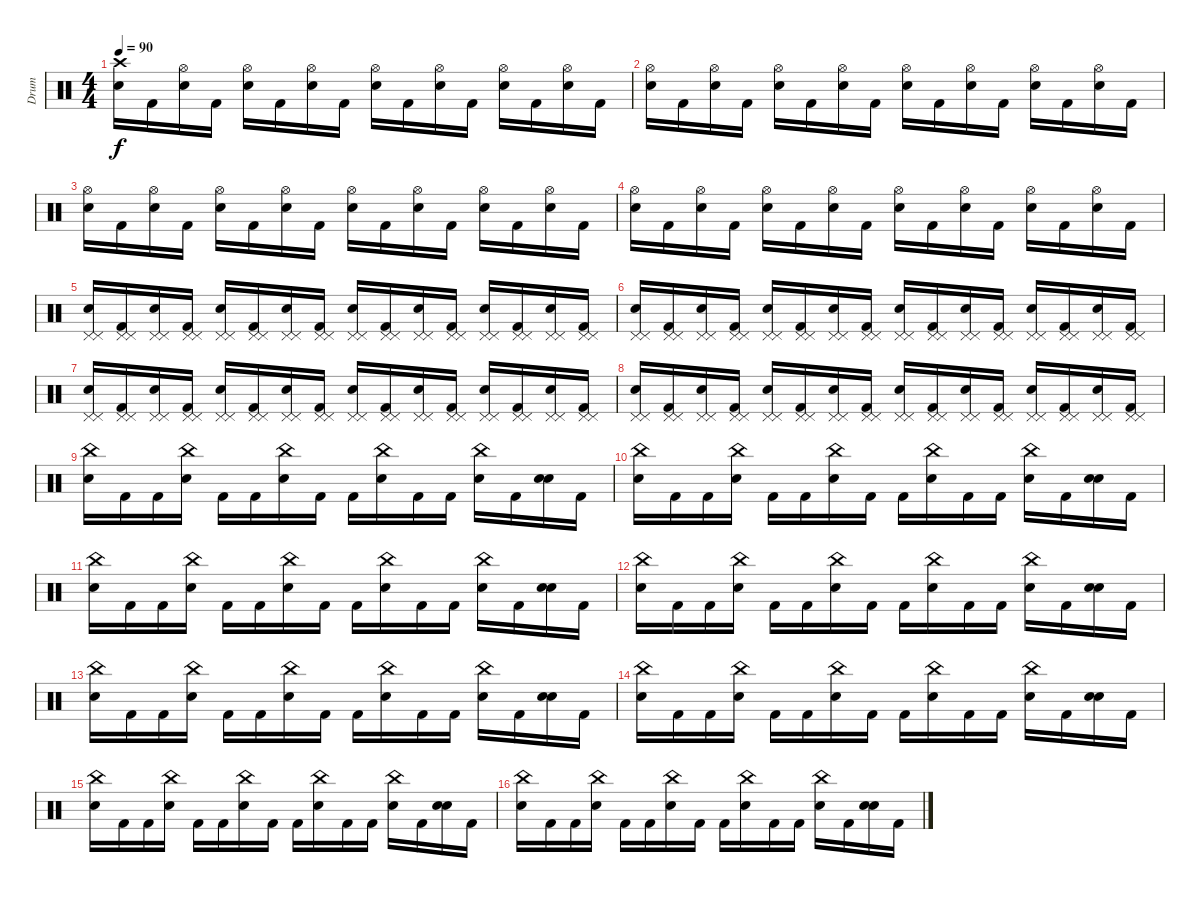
\track ("Drum" "Drum") {instrument percussion}
\staff {score}
\articulation defaults
\ts (4 4)
\tempo 90
\clef neutral
\ks c
("Crash high (hit)" "Electric Snare (hit)").16{dy f} "Kick (hit) 2".16 ("Hi-Hat (open)" "Electric Snare (hit)").16 "Kick (hit) 2".16 ("Hi-Hat (open)" "Electric Snare (hit)").16 "Kick (hit) 2".16 ("Hi-Hat (open)" "Electric Snare (hit)").16 "Kick (hit) 2".16 ("Hi-Hat (open)" "Electric Snare (hit)").16 "Kick (hit) 2".16 ("Hi-Hat (open)" "Electric Snare (hit)").16 "Kick (hit) 2".16 ("Hi-Hat (open)" "Electric Snare (hit)").16 "Kick (hit) 2".16 ("Hi-Hat (open)" "Electric Snare (hit)").16 "Kick (hit) 2".16 |
("Hi-Hat (open)" "Electric Snare (hit)").16 "Kick (hit) 2".16 ("Hi-Hat (open)" "Electric Snare (hit)").16 "Kick (hit) 2".16 ("Hi-Hat (open)" "Electric Snare (hit)").16 "Kick (hit) 2".16 ("Hi-Hat (open)" "Electric Snare (hit)").16 "Kick (hit) 2".16 ("Hi-Hat (open)" "Electric Snare (hit)").16 "Kick (hit) 2".16 ("Hi-Hat (open)" "Electric Snare (hit)").16 "Kick (hit) 2".16 ("Hi-Hat (open)" "Electric Snare (hit)").16 "Kick (hit) 2".16 ("Hi-Hat (open)" "Electric Snare (hit)").16 "Kick (hit) 2".16 |
("Hi-Hat (open)" "Electric Snare (hit)").16 "Kick (hit) 2".16 ("Hi-Hat (open)" "Electric Snare (hit)").16 "Kick (hit) 2".16 ("Hi-Hat (open)" "Electric Snare (hit)").16 "Kick (hit) 2".16 ("Hi-Hat (open)" "Electric Snare (hit)").16 "Kick (hit) 2".16 ("Hi-Hat (open)" "Electric Snare (hit)").16 "Kick (hit) 2".16 ("Hi-Hat (open)" "Electric Snare (hit)").16 "Kick (hit) 2".16 ("Hi-Hat (open)" "Electric Snare (hit)").16 "Kick (hit) 2".16 ("Hi-Hat (open)" "Electric Snare (hit)").16 "Kick (hit) 2".16 |
("Hi-Hat (open)" "Electric Snare (hit)").16 "Kick (hit) 2".16 ("Hi-Hat (open)" "Electric Snare (hit)").16 "Kick (hit) 2".16 ("Hi-Hat (open)" "Electric Snare (hit)").16 "Kick (hit) 2".16 ("Hi-Hat (open)" "Electric Snare (hit)").16 "Kick (hit) 2".16 ("Hi-Hat (open)" "Electric Snare (hit)").16 "Kick (hit) 2".16 ("Hi-Hat (open)" "Electric Snare (hit)").16 "Kick (hit) 2".16 ("Hi-Hat (open)" "Electric Snare (hit)").16 "Kick (hit) 2".16 ("Hi-Hat (open)" "Electric Snare (hit)").16 "Kick (hit) 2".16 |
("Pedal Hi-Hat (hit)" "Electric Snare (hit)" "Pedal Hi-Hat (hit)").16 ("Pedal Hi-Hat (hit)" "Kick (hit) 2" "Pedal Hi-Hat (hit)").16 ("Pedal Hi-Hat (hit)" "Electric Snare (hit)" "Pedal Hi-Hat (hit)").16 ("Pedal Hi-Hat (hit)" "Kick (hit) 2" "Pedal Hi-Hat (hit)").16 ("Pedal Hi-Hat (hit)" "Electric Snare (hit)" "Pedal Hi-Hat (hit)").16 ("Pedal Hi-Hat (hit)" "Kick (hit) 2" "Pedal Hi-Hat (hit)").16 ("Pedal Hi-Hat (hit)" "Electric Snare (hit)" "Pedal Hi-Hat (hit)").16 ("Pedal Hi-Hat (hit)" "Kick (hit) 2" "Pedal Hi-Hat (hit)").16 ("Pedal Hi-Hat (hit)" "Electric Snare (hit)" "Pedal Hi-Hat (hit)").16 ("Pedal Hi-Hat (hit)" "Kick (hit) 2" "Pedal Hi-Hat (hit)").16 ("Pedal Hi-Hat (hit)" "Electric Snare (hit)" "Pedal Hi-Hat (hit)").16 ("Pedal Hi-Hat (hit)" "Kick (hit) 2" "Pedal Hi-Hat (hit)").16 ("Pedal Hi-Hat (hit)" "Electric Snare (hit)" "Pedal Hi-Hat (hit)").16 ("Pedal Hi-Hat (hit)" "Kick (hit) 2" "Pedal Hi-Hat (hit)").16 ("Pedal Hi-Hat (hit)" "Electric Snare (hit)" "Pedal Hi-Hat (hit)").16 ("Pedal Hi-Hat (hit)" "Kick (hit) 2" "Pedal Hi-Hat (hit)").16 |
("Pedal Hi-Hat (hit)" "Electric Snare (hit)" "Pedal Hi-Hat (hit)").16 ("Pedal Hi-Hat (hit)" "Kick (hit) 2" "Pedal Hi-Hat (hit)").16 ("Pedal Hi-Hat (hit)" "Electric Snare (hit)" "Pedal Hi-Hat (hit)").16 ("Pedal Hi-Hat (hit)" "Kick (hit) 2" "Pedal Hi-Hat (hit)").16 ("Pedal Hi-Hat (hit)" "Electric Snare (hit)" "Pedal Hi-Hat (hit)").16 ("Pedal Hi-Hat (hit)" "Kick (hit) 2" "Pedal Hi-Hat (hit)").16 ("Pedal Hi-Hat (hit)" "Electric Snare (hit)" "Pedal Hi-Hat (hit)").16 ("Pedal Hi-Hat (hit)" "Kick (hit) 2" "Pedal Hi-Hat (hit)").16 ("Pedal Hi-Hat (hit)" "Electric Snare (hit)" "Pedal Hi-Hat (hit)").16 ("Pedal Hi-Hat (hit)" "Kick (hit) 2" "Pedal Hi-Hat (hit)").16 ("Pedal Hi-Hat (hit)" "Electric Snare (hit)" "Pedal Hi-Hat (hit)").16 ("Pedal Hi-Hat (hit)" "Kick (hit) 2" "Pedal Hi-Hat (hit)").16 ("Pedal Hi-Hat (hit)" "Electric Snare (hit)" "Pedal Hi-Hat (hit)").16 ("Pedal Hi-Hat (hit)" "Kick (hit) 2" "Pedal Hi-Hat (hit)").16 ("Pedal Hi-Hat (hit)" "Electric Snare (hit)" "Pedal Hi-Hat (hit)").16 ("Pedal Hi-Hat (hit)" "Kick (hit) 2" "Pedal Hi-Hat (hit)").16 |
("Pedal Hi-Hat (hit)" "Electric Snare (hit)" "Pedal Hi-Hat (hit)").16 ("Pedal Hi-Hat (hit)" "Kick (hit) 2" "Pedal Hi-Hat (hit)").16 ("Pedal Hi-Hat (hit)" "Electric Snare (hit)" "Pedal Hi-Hat (hit)").16 ("Pedal Hi-Hat (hit)" "Kick (hit) 2" "Pedal Hi-Hat (hit)").16 ("Pedal Hi-Hat (hit)" "Electric Snare (hit)" "Pedal Hi-Hat (hit)").16 ("Pedal Hi-Hat (hit)" "Kick (hit) 2" "Pedal Hi-Hat (hit)").16 ("Pedal Hi-Hat (hit)" "Electric Snare (hit)" "Pedal Hi-Hat (hit)").16 ("Pedal Hi-Hat (hit)" "Kick (hit) 2" "Pedal Hi-Hat (hit)").16 ("Pedal Hi-Hat (hit)" "Electric Snare (hit)" "Pedal Hi-Hat (hit)").16 ("Pedal Hi-Hat (hit)" "Kick (hit) 2" "Pedal Hi-Hat (hit)").16 ("Pedal Hi-Hat (hit)" "Electric Snare (hit)" "Pedal Hi-Hat (hit)").16 ("Pedal Hi-Hat (hit)" "Kick (hit) 2" "Pedal Hi-Hat (hit)").16 ("Pedal Hi-Hat (hit)" "Electric Snare (hit)" "Pedal Hi-Hat (hit)").16 ("Pedal Hi-Hat (hit)" "Kick (hit) 2" "Pedal Hi-Hat (hit)").16 ("Pedal Hi-Hat (hit)" "Electric Snare (hit)" "Pedal Hi-Hat (hit)").16 ("Pedal Hi-Hat (hit)" "Kick (hit) 2" "Pedal Hi-Hat (hit)").16 |
("Pedal Hi-Hat (hit)" "Electric Snare (hit)" "Pedal Hi-Hat (hit)").16 ("Pedal Hi-Hat (hit)" "Kick (hit) 2" "Pedal Hi-Hat (hit)").16 ("Pedal Hi-Hat (hit)" "Electric Snare (hit)" "Pedal Hi-Hat (hit)").16 ("Pedal Hi-Hat (hit)" "Kick (hit) 2" "Pedal Hi-Hat (hit)").16 ("Pedal Hi-Hat (hit)" "Electric Snare (hit)" "Pedal Hi-Hat (hit)").16 ("Pedal Hi-Hat (hit)" "Kick (hit) 2" "Pedal Hi-Hat (hit)").16 ("Pedal Hi-Hat (hit)" "Electric Snare (hit)" "Pedal Hi-Hat (hit)").16 ("Pedal Hi-Hat (hit)" "Kick (hit) 2" "Pedal Hi-Hat (hit)").16 ("Pedal Hi-Hat (hit)" "Electric Snare (hit)" "Pedal Hi-Hat (hit)").16 ("Pedal Hi-Hat (hit)" "Kick (hit) 2" "Pedal Hi-Hat (hit)").16 ("Pedal Hi-Hat (hit)" "Electric Snare (hit)" "Pedal Hi-Hat (hit)").16 ("Pedal Hi-Hat (hit)" "Kick (hit) 2" "Pedal Hi-Hat (hit)").16 ("Pedal Hi-Hat (hit)" "Electric Snare (hit)" "Pedal Hi-Hat (hit)").16 ("Pedal Hi-Hat (hit)" "Kick (hit) 2" "Pedal Hi-Hat (hit)").16 ("Pedal Hi-Hat (hit)" "Electric Snare (hit)" "Pedal Hi-Hat (hit)").16 ("Pedal Hi-Hat (hit)" "Kick (hit) 2" "Pedal Hi-Hat (hit)").16 |
("China (hit)" "Electric Snare (hit)").16 "Kick (hit) 2".16 "Kick (hit) 2".16 ("China (hit)" "Electric Snare (hit)").16 "Kick (hit) 2".16 "Kick (hit) 2".16 ("China (hit)" "Electric Snare (hit)").16 "Kick (hit) 2".16 "Kick (hit) 2".16 ("China (hit)" "Electric Snare (hit)").16 "Kick (hit) 2".16 "Kick (hit) 2".16 ("China (hit)" "Electric Snare (hit)").16 "Kick (hit) 2".16 ("Electric Snare (hit)" "Electric Snare (hit)").16 "Kick (hit) 2".16 |
("China (hit)" "Electric Snare (hit)").16 "Kick (hit) 2".16 "Kick (hit) 2".16 ("China (hit)" "Electric Snare (hit)").16 "Kick (hit) 2".16 "Kick (hit) 2".16 ("China (hit)" "Electric Snare (hit)").16 "Kick (hit) 2".16 "Kick (hit) 2".16 ("China (hit)" "Electric Snare (hit)").16 "Kick (hit) 2".16 "Kick (hit) 2".16 ("China (hit)" "Electric Snare (hit)").16 "Kick (hit) 2".16 ("Electric Snare (hit)" "Electric Snare (hit)").16 "Kick (hit) 2".16 |
("China (hit)" "Electric Snare (hit)").16 "Kick (hit) 2".16 "Kick (hit) 2".16 ("China (hit)" "Electric Snare (hit)").16 "Kick (hit) 2".16 "Kick (hit) 2".16 ("China (hit)" "Electric Snare (hit)").16 "Kick (hit) 2".16 "Kick (hit) 2".16 ("China (hit)" "Electric Snare (hit)").16 "Kick (hit) 2".16 "Kick (hit) 2".16 ("China (hit)" "Electric Snare (hit)").16 "Kick (hit) 2".16 ("Electric Snare (hit)" "Electric Snare (hit)").16 "Kick (hit) 2".16 |
("China (hit)" "Electric Snare (hit)").16 "Kick (hit) 2".16 "Kick (hit) 2".16 ("China (hit)" "Electric Snare (hit)").16 "Kick (hit) 2".16 "Kick (hit) 2".16 ("China (hit)" "Electric Snare (hit)").16 "Kick (hit) 2".16 "Kick (hit) 2".16 ("China (hit)" "Electric Snare (hit)").16 "Kick (hit) 2".16 "Kick (hit) 2".16 ("China (hit)" "Electric Snare (hit)").16 "Kick (hit) 2".16 ("Electric Snare (hit)" "Electric Snare (hit)").16 "Kick (hit) 2".16 |
("China (hit)" "Electric Snare (hit)").16 "Kick (hit) 2".16 "Kick (hit) 2".16 ("China (hit)" "Electric Snare (hit)").16 "Kick (hit) 2".16 "Kick (hit) 2".16 ("China (hit)" "Electric Snare (hit)").16 "Kick (hit) 2".16 "Kick (hit) 2".16 ("China (hit)" "Electric Snare (hit)").16 "Kick (hit) 2".16 "Kick (hit) 2".16 ("China (hit)" "Electric Snare (hit)").16 "Kick (hit) 2".16 ("Electric Snare (hit)" "Electric Snare (hit)").16 "Kick (hit) 2".16 |
("China (hit)" "Electric Snare (hit)").16 "Kick (hit) 2".16 "Kick (hit) 2".16 ("China (hit)" "Electric Snare (hit)").16 "Kick (hit) 2".16 "Kick (hit) 2".16 ("China (hit)" "Electric Snare (hit)").16 "Kick (hit) 2".16 "Kick (hit) 2".16 ("China (hit)" "Electric Snare (hit)").16 "Kick (hit) 2".16 "Kick (hit) 2".16 ("China (hit)" "Electric Snare (hit)").16 "Kick (hit) 2".16 ("Electric Snare (hit)" "Electric Snare (hit)").16 "Kick (hit) 2".16 |
("China (hit)" "Electric Snare (hit)").16 "Kick (hit) 2".16 "Kick (hit) 2".16 ("China (hit)" "Electric Snare (hit)").16 "Kick (hit) 2".16 "Kick (hit) 2".16 ("China (hit)" "Electric Snare (hit)").16 "Kick (hit) 2".16 "Kick (hit) 2".16 ("China (hit)" "Electric Snare (hit)").16 "Kick (hit) 2".16 "Kick (hit) 2".16 ("China (hit)" "Electric Snare (hit)").16 "Kick (hit) 2".16 ("Electric Snare (hit)" "Electric Snare (hit)").16 "Kick (hit) 2".16 |
("China (hit)" "Electric Snare (hit)").16 "Kick (hit) 2".16 "Kick (hit) 2".16 ("China (hit)" "Electric Snare (hit)").16 "Kick (hit) 2".16 "Kick (hit) 2".16 ("China (hit)" "Electric Snare (hit)").16 "Kick (hit) 2".16 "Kick (hit) 2".16 ("China (hit)" "Electric Snare (hit)").16 "Kick (hit) 2".16 "Kick (hit) 2".16 ("China (hit)" "Electric Snare (hit)").16 "Kick (hit) 2".16 ("Electric Snare (hit)" "Electric Snare (hit)").16 "Kick (hit) 2".16
